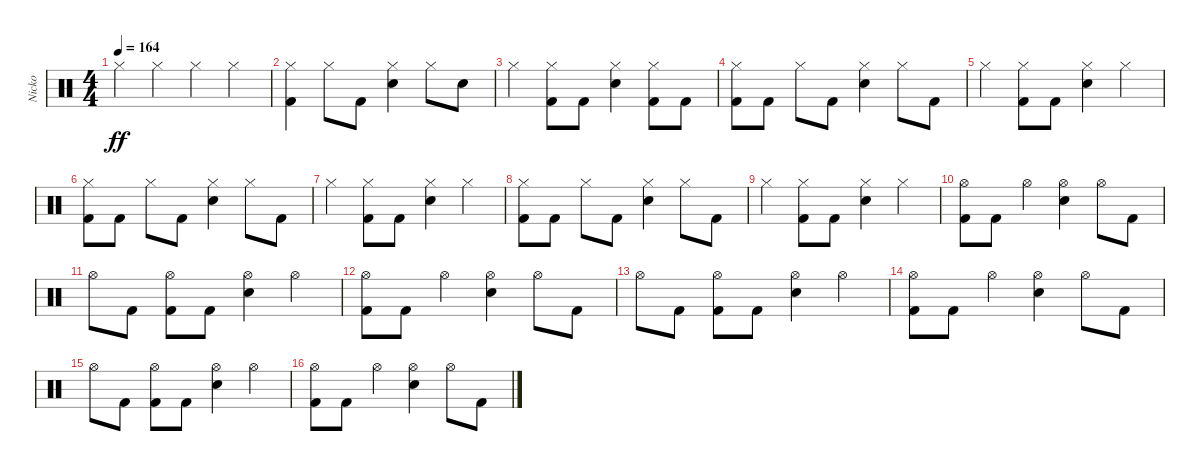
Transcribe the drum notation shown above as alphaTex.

\track ("Nicko" "Nicko") {instrument percussion}
\staff {score}
\articulation defaults
\ts (4 4)
\tempo 164
\clef neutral
\ks c "Hi-Hat (closed)".4{dy ff} "Hi-Hat (closed)".4 "Hi-Hat (closed)".4 "Hi-Hat (closed)".4
|
("Kick (hit) 2" "Hi-Hat (closed)").4 "Hi-Hat (closed)".8 "Kick (hit) 2".8 ("Snare (hit) 2" "Hi-Hat (closed)").4 "Hi-Hat (closed)".8 "Snare (hit) 2".8 |
"Hi-Hat (closed)".4 ("Kick (hit) 2" "Hi-Hat (closed)").8 "Kick (hit) 2".8 ("Snare (hit) 2" "Hi-Hat (closed)").4 ("Kick (hit) 2" "Hi-Hat (closed)").8 "Kick (hit) 2".8 |
("Kick (hit) 2" "Hi-Hat (closed)").8 "Kick (hit) 2".8 "Hi-Hat (closed)".8 "Kick (hit) 2".8 ("Snare (hit) 2" "Hi-Hat (closed)").4 "Hi-Hat (closed)".8 "Kick (hit) 2".8 |
"Hi-Hat (closed)".4 ("Kick (hit) 2" "Hi-Hat (closed)").8 "Kick (hit) 2".8 ("Snare (hit) 2" "Hi-Hat (closed)").4 "Hi-Hat (closed)".4 |
("Kick (hit) 2" "Hi-Hat (closed)").8 "Kick (hit) 2".8 "Hi-Hat (closed)".8 "Kick (hit) 2".8 ("Snare (hit) 2" "Hi-Hat (closed)").4 "Hi-Hat (closed)".8 "Kick (hit) 2".8 |
"Hi-Hat (closed)".4 ("Kick (hit) 2" "Hi-Hat (closed)").8 "Kick (hit) 2".8 ("Snare (hit) 2" "Hi-Hat (closed)").4 "Hi-Hat (closed)".4 |
("Kick (hit) 2" "Hi-Hat (closed)").8 "Kick (hit) 2".8 "Hi-Hat (closed)".8 "Kick (hit) 2".8 ("Snare (hit) 2" "Hi-Hat (closed)").4 "Hi-Hat (closed)".8 "Kick (hit) 2".8 |
"Hi-Hat (closed)".4 ("Kick (hit) 2" "Hi-Hat (closed)").8 "Kick (hit) 2".8 ("Snare (hit) 2" "Hi-Hat (closed)").4 "Hi-Hat (closed)".4 |
("Kick (hit) 2" "Hi-Hat (open)").8 "Kick (hit) 2".8 "Hi-Hat (open)".4 ("Snare (hit) 2" "Hi-Hat (open)").4 "Hi-Hat (open)".8 "Kick (hit) 2".8 |
"Hi-Hat (open)".8 "Kick (hit) 2".8 ("Kick (hit) 2" "Hi-Hat (open)").8 "Kick (hit) 2".8 ("Snare (hit) 2" "Hi-Hat (open)").4 "Hi-Hat (open)".4 |
("Kick (hit) 2" "Hi-Hat (open)").8 "Kick (hit) 2".8 "Hi-Hat (open)".4 ("Snare (hit) 2" "Hi-Hat (open)").4 "Hi-Hat (open)".8 "Kick (hit) 2".8 |
"Hi-Hat (open)".8 "Kick (hit) 2".8 ("Kick (hit) 2" "Hi-Hat (open)").8 "Kick (hit) 2".8 ("Snare (hit) 2" "Hi-Hat (open)").4 "Hi-Hat (open)".4 |
("Kick (hit) 2" "Hi-Hat (open)").8 "Kick (hit) 2".8 "Hi-Hat (open)".4 ("Snare (hit) 2" "Hi-Hat (open)").4 "Hi-Hat (open)".8 "Kick (hit) 2".8 |
"Hi-Hat (open)".8 "Kick (hit) 2".8 ("Kick (hit) 2" "Hi-Hat (open)").8 "Kick (hit) 2".8 ("Snare (hit) 2" "Hi-Hat (open)").4 "Hi-Hat (open)".4 |
("Kick (hit) 2" "Hi-Hat (open)").8 "Kick (hit) 2".8 "Hi-Hat (open)".4 ("Snare (hit) 2" "Hi-Hat (open)").4 "Hi-Hat (open)".8 "Kick (hit) 2".8
